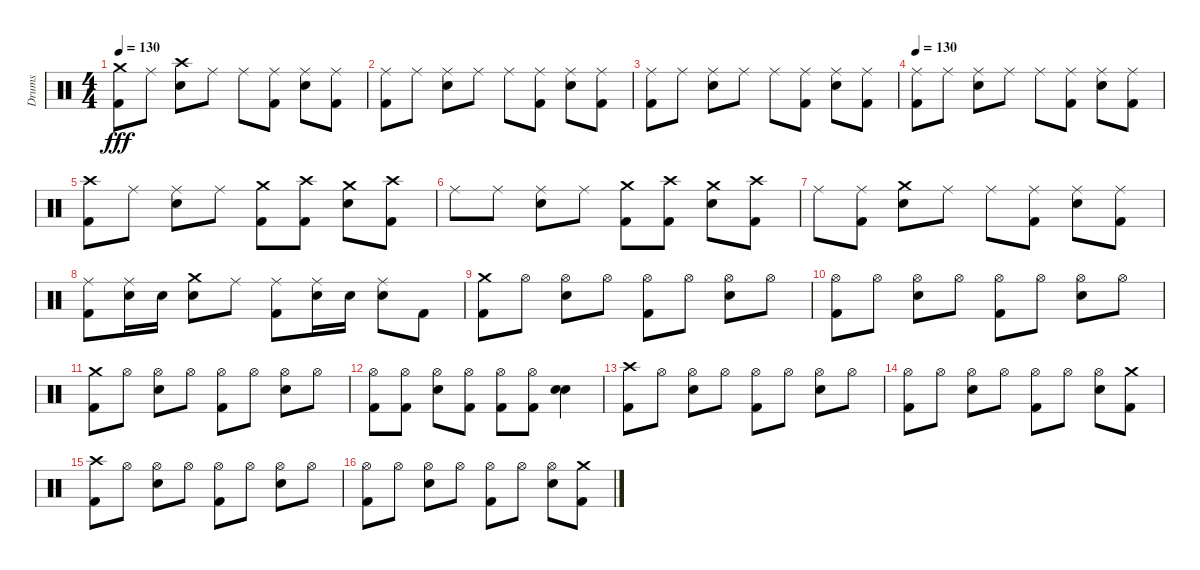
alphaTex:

\track ("Drums" "Drums") {instrument percussion}
\staff {score}
\articulation defaults
\ts (4 4)
\tempo 130
\clef neutral
\ks c
("Crash medium (hit)" "Kick (hit) 2").8{dy fff} "Ride (middle)".8 ("Crash high (hit)" "Electric Snare (hit)").8 "Ride (middle)".8 "Ride (middle)".8 ("Ride (middle)" "Kick (hit) 2").8 ("Ride (middle)" "Electric Snare (hit)").8 ("Ride (middle)" "Kick (hit) 2").8 |
("Ride (middle)" "Kick (hit) 2").8 "Ride (middle)".8 ("Ride (middle)" "Electric Snare (hit)").8 "Ride (middle)".8 "Ride (middle)".8 ("Ride (middle)" "Kick (hit) 2").8 ("Ride (middle)" "Electric Snare (hit)").8 ("Ride (middle)" "Kick (hit) 2").8 |
("Ride (middle)" "Kick (hit) 2").8 "Ride (middle)".8 ("Ride (middle)" "Electric Snare (hit)").8 "Ride (middle)".8 "Ride (middle)".8 ("Ride (middle)" "Kick (hit) 2").8 ("Ride (middle)" "Electric Snare (hit)").8 ("Ride (middle)" "Kick (hit) 2").8 |
\tempo 130
("Kick (hit) 2" "Ride (middle)").8 "Ride (middle)".8 ("Electric Snare (hit)" "Ride (middle)").8 "Ride (middle)".8 "Ride (middle)".8 ("Ride (middle)" "Kick (hit) 2").8 ("Electric Snare (hit)" "Ride (middle)").8 ("Ride (middle)" "Kick (hit) 2").8 |
("Kick (hit) 2" "Crash high (hit)").8 "Ride (middle)".8 ("Electric Snare (hit)" "Ride (middle)").8 "Ride (middle)".8 ("Kick (hit) 2" "Crash medium (hit)").8 ("Kick (hit) 2" "Crash high (hit)").8 ("Electric Snare (hit)" "Crash medium (hit)").8 ("Kick (hit) 2" "Crash high (hit)").8 |
"Ride (middle)".8 "Ride (middle)".8 ("Ride (middle)" "Electric Snare (hit)").8 "Ride (middle)".8 ("Kick (hit) 2" "Crash medium (hit)").8 ("Kick (hit) 2" "Crash high (hit)").8 ("Electric Snare (hit)" "Crash medium (hit)").8 ("Kick (hit) 2" "Crash high (hit)").8 |
"Ride (middle)".8 ("Ride (middle)" "Kick (hit) 2").8 ("Crash medium (hit)" "Electric Snare (hit)").8 "Ride (middle)".8 "Ride (middle)".8 ("Ride (middle)" "Kick (hit) 2").8 ("Ride (middle)" "Electric Snare (hit)").8 ("Ride (middle)" "Kick (hit) 2").8 |
("Kick (hit) 2" "Ride (middle)").8 ("Electric Snare (hit)" "Ride (middle)").16 "Electric Snare (hit)".16 ("Crash medium (hit)" "Electric Snare (hit)").8 "Ride (middle)".8 ("Ride (middle)" "Kick (hit) 2").8 ("Electric Snare (hit)" "Ride (middle)").16 "Electric Snare (hit)".16 ("Ride (middle)" "Electric Snare (hit)").8 "Kick (hit) 2".8 |
("Crash medium (hit)" "Kick (hit) 2").8 "Hi-Hat (open)".8 ("Hi-Hat (open)" "Electric Snare (hit)").8 "Hi-Hat (open)".8 ("Hi-Hat (open)" "Kick (hit) 2").8 "Hi-Hat (open)".8 ("Hi-Hat (open)" "Electric Snare (hit)").8 "Hi-Hat (open)".8 |
("Kick (hit) 2" "Hi-Hat (open)").8 "Hi-Hat (open)".8 ("Electric Snare (hit)" "Hi-Hat (open)").8 "Hi-Hat (open)".8 ("Kick (hit) 2" "Hi-Hat (open)").8 "Hi-Hat (open)".8 ("Electric Snare (hit)" "Hi-Hat (open)").8 "Hi-Hat (open)".8 |
("Kick (hit) 2" "Crash medium (hit)").8 "Hi-Hat (open)".8 ("Electric Snare (hit)" "Hi-Hat (open)").8 "Hi-Hat (open)".8 ("Kick (hit) 2" "Hi-Hat (open)").8 "Hi-Hat (open)".8 ("Electric Snare (hit)" "Hi-Hat (open)").8 "Hi-Hat (open)".8 |
("Hi-Hat (open)" "Kick (hit) 2").8 ("Kick (hit) 2" "Hi-Hat (open)").8 ("Hi-Hat (open)" "Electric Snare (hit)").8 ("Kick (hit) 2" "Hi-Hat (open)").8 ("Hi-Hat (open)" "Kick (hit) 2").8 ("Hi-Hat (open)" "Kick (hit) 2").8 ("Electric Snare (hit)" "Electric Snare (hit)").4 |
("Kick (hit) 2" "Crash high (hit)").8 "Hi-Hat (open)".8 ("Electric Snare (hit)" "Hi-Hat (open)").8 "Hi-Hat (open)".8 ("Kick (hit) 2" "Hi-Hat (open)").8 "Hi-Hat (open)".8 ("Electric Snare (hit)" "Hi-Hat (open)").8 "Hi-Hat (open)".8 |
("Hi-Hat (open)" "Kick (hit) 2").8 "Hi-Hat (open)".8 ("Hi-Hat (open)" "Electric Snare (hit)").8 "Hi-Hat (open)".8 ("Hi-Hat (open)" "Kick (hit) 2").8 "Hi-Hat (open)".8 ("Hi-Hat (open)" "Electric Snare (hit)").8 ("Crash medium (hit)" "Kick (hit) 2").8 |
("Crash high (hit)" "Kick (hit) 2").8 "Hi-Hat (open)".8 ("Hi-Hat (open)" "Electric Snare (hit)").8 "Hi-Hat (open)".8 ("Hi-Hat (open)" "Kick (hit) 2").8 "Hi-Hat (open)".8 ("Hi-Hat (open)" "Electric Snare (hit)").8 "Hi-Hat (open)".8 |
("Hi-Hat (open)" "Kick (hit) 2").8 "Hi-Hat (open)".8 ("Hi-Hat (open)" "Electric Snare (hit)").8 "Hi-Hat (open)".8 ("Hi-Hat (open)" "Kick (hit) 2").8 "Hi-Hat (open)".8 ("Hi-Hat (open)" "Electric Snare (hit)").8 ("Crash medium (hit)" "Kick (hit) 2").8
